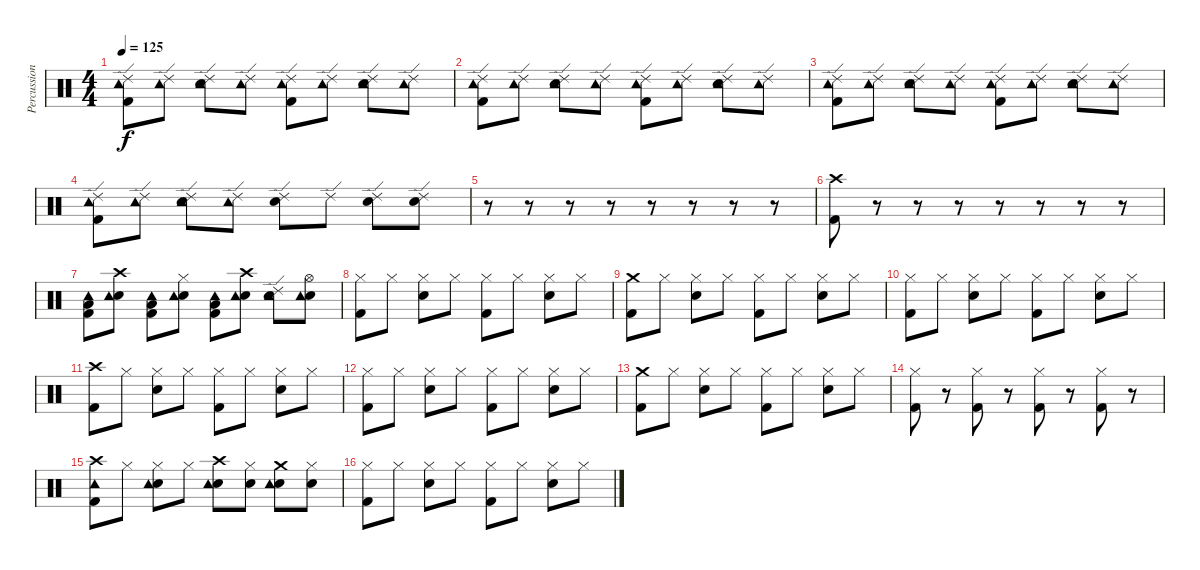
\track ("Percussions" "Percussion") {instrument percussion}
\staff {score}
\articulation defaults
\ts (4 4)
\tempo 125
\clef neutral
\ks c
("Ride (edge) 2" "Kick (hit) 2" "Tambourine (hit)").8{dy f} ("Ride (edge) 2" "Tambourine (hit)").8 ("Ride (edge) 2" "Snare (hit) 2" "Tambourine (hit)").8 ("Ride (edge) 2" "Tambourine (hit)").8 ("Ride (edge) 2" "Kick (hit) 2" "Tambourine (hit)").8 ("Ride (edge) 2" "Tambourine (hit)").8 ("Ride (edge) 2" "Snare (hit) 2" "Tambourine (hit)").8 ("Ride (edge) 2" "Tambourine (hit)").8 |
("Ride (edge) 2" "Kick (hit) 2" "Tambourine (hit)").8 ("Ride (edge) 2" "Tambourine (hit)").8 ("Ride (edge) 2" "Snare (hit) 2" "Tambourine (hit)").8 ("Ride (edge) 2" "Tambourine (hit)").8 ("Ride (edge) 2" "Kick (hit) 2" "Tambourine (hit)").8 ("Ride (edge) 2" "Tambourine (hit)").8 ("Ride (edge) 2" "Snare (hit) 2" "Tambourine (hit)").8 ("Ride (edge) 2" "Tambourine (hit)").8 |
("Ride (edge) 2" "Kick (hit) 2" "Tambourine (hit)").8 ("Ride (edge) 2" "Tambourine (hit)").8 ("Ride (edge) 2" "Snare (hit) 2" "Tambourine (hit)").8 ("Ride (edge) 2" "Tambourine (hit)").8 ("Ride (edge) 2" "Kick (hit) 2" "Tambourine (hit)").8 ("Ride (edge) 2" "Tambourine (hit)").8 ("Ride (edge) 2" "Snare (hit) 2" "Tambourine (hit)").8 ("Ride (edge) 2" "Tambourine (hit)").8 |
("Ride (edge) 2" "Kick (hit) 2" "Tambourine (hit)").8 ("Ride (edge) 2" "Tambourine (hit)").8 ("Ride (edge) 2" "Snare (hit) 2" "Tambourine (hit)").8 ("Ride (edge) 2" "Tambourine (hit)").8 ("Ride (edge) 2" "Snare (hit) 2").8 "Ride (edge) 2".8 ("Ride (edge) 2" "Snare (hit) 2").8 ("Ride (edge) 2" "Snare (hit) 2").8 |
r.8 r.8 r.8 r.8 r.8 r.8 r.8 r.8 |
("Crash high (hit)" "Kick (hit) 2").8 r.8 r.8 r.8 r.8 r.8 r.8 r.8 |
("Low Tom (hit)" "Kick (hit) 2" "Tambourine (hit)").8 ("Crash high (hit)" "Snare (hit) 2" "Tambourine (hit)").8 ("Low Tom (hit)" "Kick (hit) 2" "Tambourine (hit)").8 ("Hi-Hat (closed)" "Snare (hit) 2" "Tambourine (hit)").8 ("Low Tom (hit)" "Kick (hit) 2" "Tambourine (hit)").8 ("Crash high (hit)" "Snare (hit) 2" "Tambourine (hit)").8 ("Ride (edge) 2" "Snare (hit) 2" "Tambourine (hit)").8 ("Hi-Hat (open)" "Snare (hit) 2" "Tambourine (hit)").8 |
("Hi-Hat (closed)" "Kick (hit) 2").8 "Hi-Hat (closed)".8 ("Hi-Hat (closed)" "Snare (hit) 2").8 "Hi-Hat (closed)".8 ("Hi-Hat (closed)" "Kick (hit) 2").8 "Hi-Hat (closed)".8 ("Hi-Hat (closed)" "Snare (hit) 2").8 "Hi-Hat (closed)".8 |
("Crash medium (hit)" "Kick (hit) 2").8 "Hi-Hat (closed)".8 ("Hi-Hat (closed)" "Snare (hit) 2").8 "Hi-Hat (closed)".8 ("Hi-Hat (closed)" "Kick (hit) 2").8 "Hi-Hat (closed)".8 ("Hi-Hat (closed)" "Snare (hit) 2").8 "Hi-Hat (closed)".8 |
("Hi-Hat (closed)" "Kick (hit) 2").8 "Hi-Hat (closed)".8 ("Hi-Hat (closed)" "Snare (hit) 2").8 "Hi-Hat (closed)".8 ("Hi-Hat (closed)" "Kick (hit) 2").8 "Hi-Hat (closed)".8 ("Hi-Hat (closed)" "Snare (hit) 2").8 "Hi-Hat (closed)".8 |
("Crash high (hit)" "Kick (hit) 2").8 "Hi-Hat (closed)".8 ("Hi-Hat (closed)" "Snare (hit) 2").8 "Hi-Hat (closed)".8 ("Hi-Hat (closed)" "Kick (hit) 2").8 "Hi-Hat (closed)".8 ("Hi-Hat (closed)" "Snare (hit) 2").8 "Hi-Hat (closed)".8 |
("Hi-Hat (closed)" "Kick (hit) 2").8 "Hi-Hat (closed)".8 ("Hi-Hat (closed)" "Snare (hit) 2").8 "Hi-Hat (closed)".8 ("Hi-Hat (closed)" "Kick (hit) 2").8 "Hi-Hat (closed)".8 ("Hi-Hat (closed)" "Snare (hit) 2").8 "Hi-Hat (closed)".8 |
("Crash medium (hit)" "Kick (hit) 2").8 "Hi-Hat (closed)".8 ("Hi-Hat (closed)" "Snare (hit) 2").8 "Hi-Hat (closed)".8 ("Hi-Hat (closed)" "Kick (hit) 2").8 "Hi-Hat (closed)".8 ("Hi-Hat (closed)" "Snare (hit) 2").8 "Hi-Hat (closed)".8 |
("Hi-Hat (closed)" "Kick (hit) 2").8 r.8 ("Hi-Hat (closed)" "Kick (hit) 2").8 r.8 ("Hi-Hat (closed)" "Kick (hit) 2").8 r.8 ("Hi-Hat (closed)" "Kick (hit) 2").8 r.8 |
("Crash high (hit)" "Kick (hit) 2" "Tambourine (hit)").8 "Hi-Hat (closed)".8 ("Hi-Hat (closed)" "Snare (hit) 2" "Tambourine (hit)").8 "Hi-Hat (closed)".8 ("Crash high (hit)" "Snare (hit) 2" "Tambourine (hit)").8 ("Hi-Hat (closed)" "Snare (hit) 2").8 ("Crash medium (hit)" "Snare (hit) 2" "Tambourine (hit)").8 ("Hi-Hat (closed)" "Snare (hit) 2").8 |
("Hi-Hat (closed)" "Kick (hit) 2").8 "Hi-Hat (closed)".8 ("Hi-Hat (closed)" "Snare (hit) 2").8 "Hi-Hat (closed)".8 ("Hi-Hat (closed)" "Kick (hit) 2").8 "Hi-Hat (closed)".8 ("Hi-Hat (closed)" "Snare (hit) 2").8 "Hi-Hat (closed)".8
